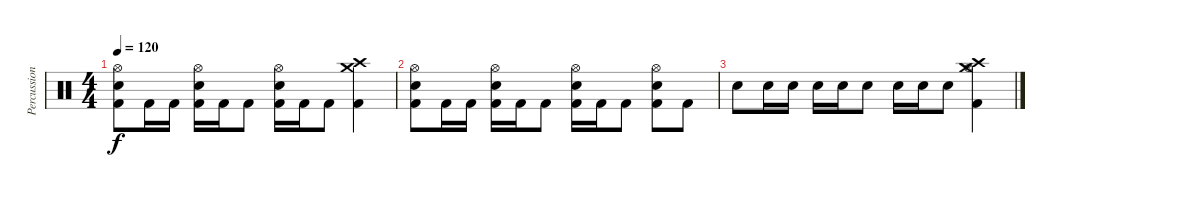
\track ("Percussion" "Percussion") {instrument percussion}
\staff {score}
\articulation defaults
\ts (4 4)
\tempo 120
\clef neutral
\ks c
("Kick (hit) 2" "Snare (hit) 2" "Hi-Hat (open)").8{dy f} "Kick (hit) 2".16 "Kick (hit) 2".16 ("Kick (hit) 2" "Snare (hit) 2" "Hi-Hat (open)").16 "Kick (hit) 2".16 "Kick (hit) 2".8 ("Kick (hit) 2" "Snare (hit) 2" "Hi-Hat (open)").16 "Kick (hit) 2".16 "Kick (hit) 2".8 ("Kick (hit) 2" "Crash high (hit)" "Crash medium (hit)").4 |
("Kick (hit) 2" "Snare (hit) 2" "Hi-Hat (open)").8 "Kick (hit) 2".16 "Kick (hit) 2".16 ("Kick (hit) 2" "Snare (hit) 2" "Hi-Hat (open)").16 "Kick (hit) 2".16 "Kick (hit) 2".8 ("Kick (hit) 2" "Snare (hit) 2" "Hi-Hat (open)").16 "Kick (hit) 2".16 "Kick (hit) 2".8 ("Kick (hit) 2" "Snare (hit) 2" "Hi-Hat (open)").8 "Kick (hit) 2".8 |
"Snare (hit) 2".8 "Snare (hit) 2".16 "Snare (hit) 2".16 "Snare (hit) 2".16 "Snare (hit) 2".16 "Snare (hit) 2".8 "Snare (hit) 2".16 "Snare (hit) 2".16 "Snare (hit) 2".8 ("Hi-Hat (open)" "Kick (hit) 2" "Crash medium (hit)" "Crash high (hit)").4
